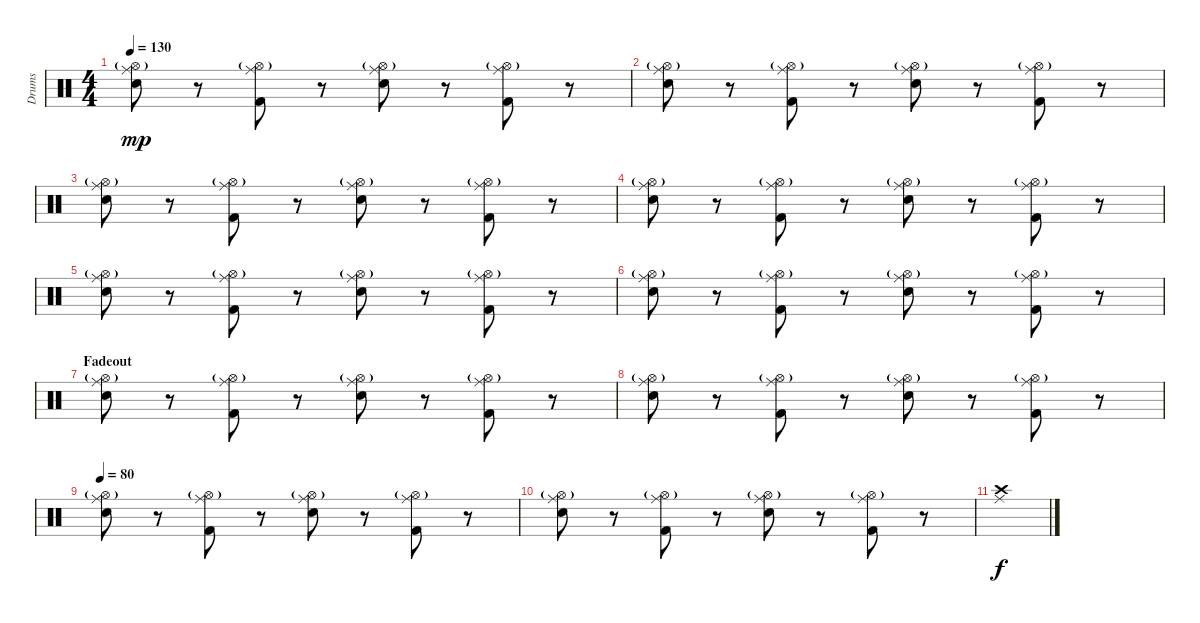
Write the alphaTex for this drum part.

\track ("Drums" "Drums") {instrument percussion}
\staff {score}
\articulation defaults
\ts (4 4)
\tempo 130
\clef neutral
\ks c
("Ride (middle)" "Hi-Hat (open)"{g} "Electric Snare (hit)").8{dy mp} r.8 ("Ride (middle)" "Hi-Hat (open)"{g} "Kick (hit) 2").8 r.8 ("Ride (middle)" "Hi-Hat (open)"{g} "Electric Snare (hit)").8 r.8 ("Ride (middle)" "Hi-Hat (open)"{g} "Kick (hit) 2").8 r.8 |
("Ride (middle)" "Hi-Hat (open)"{g} "Electric Snare (hit)").8 r.8 ("Ride (middle)" "Hi-Hat (open)"{g} "Kick (hit) 2").8 r.8 ("Ride (middle)" "Hi-Hat (open)"{g} "Electric Snare (hit)").8 r.8 ("Ride (middle)" "Hi-Hat (open)"{g} "Kick (hit) 2").8 r.8 |
("Ride (middle)" "Hi-Hat (open)"{g} "Electric Snare (hit)").8 r.8 ("Ride (middle)" "Hi-Hat (open)"{g} "Kick (hit) 2").8 r.8 ("Ride (middle)" "Hi-Hat (open)"{g} "Electric Snare (hit)").8 r.8 ("Ride (middle)" "Hi-Hat (open)"{g} "Kick (hit) 2").8 r.8 |
("Ride (middle)" "Hi-Hat (open)"{g} "Electric Snare (hit)").8 r.8 ("Ride (middle)" "Hi-Hat (open)"{g} "Kick (hit) 2").8 r.8 ("Ride (middle)" "Hi-Hat (open)"{g} "Electric Snare (hit)").8 r.8 ("Ride (middle)" "Hi-Hat (open)"{g} "Kick (hit) 2").8 r.8 |
("Ride (middle)" "Hi-Hat (open)"{g} "Electric Snare (hit)").8 r.8 ("Ride (middle)" "Hi-Hat (open)"{g} "Kick (hit) 2").8 r.8 ("Ride (middle)" "Hi-Hat (open)"{g} "Electric Snare (hit)").8 r.8 ("Ride (middle)" "Hi-Hat (open)"{g} "Kick (hit) 2").8 r.8 |
("Ride (middle)" "Hi-Hat (open)"{g} "Electric Snare (hit)").8 r.8 ("Ride (middle)" "Hi-Hat (open)"{g} "Kick (hit) 2").8 r.8 ("Ride (middle)" "Hi-Hat (open)"{g} "Electric Snare (hit)").8 r.8 ("Ride (middle)" "Hi-Hat (open)"{g} "Kick (hit) 2").8 r.8 |
\section ("" "Fadeout")
("Ride (middle)" "Hi-Hat (open)"{g} "Electric Snare (hit)").8 r.8 ("Ride (middle)" "Hi-Hat (open)"{g} "Kick (hit) 2").8 r.8 ("Ride (middle)" "Hi-Hat (open)"{g} "Electric Snare (hit)").8 r.8 ("Ride (middle)" "Hi-Hat (open)"{g} "Kick (hit) 2").8 r.8 |
("Ride (middle)" "Hi-Hat (open)"{g} "Electric Snare (hit)").8 r.8 ("Ride (middle)" "Hi-Hat (open)"{g} "Kick (hit) 2").8 r.8 ("Ride (middle)" "Hi-Hat (open)"{g} "Electric Snare (hit)").8 r.8 ("Ride (middle)" "Hi-Hat (open)"{g} "Kick (hit) 2").8 r.8 |
\tempo 80
("Ride (middle)" "Hi-Hat (open)"{g} "Electric Snare (hit)").8 r.8 ("Ride (middle)" "Hi-Hat (open)"{g} "Kick (hit) 2").8 r.8 ("Ride (middle)" "Hi-Hat (open)"{g} "Electric Snare (hit)").8 r.8 ("Ride (middle)" "Hi-Hat (open)"{g} "Kick (hit) 2").8 r.8 |
("Ride (middle)" "Hi-Hat (open)"{g} "Electric Snare (hit)").8 r.8 ("Ride (middle)" "Hi-Hat (open)"{g} "Kick (hit) 2").8 r.8 ("Ride (middle)" "Hi-Hat (open)"{g} "Electric Snare (hit)").8 r.8 ("Ride (middle)" "Hi-Hat (open)"{g} "Kick (hit) 2").8 r.8 |
("Crash high (hit)" "Ride (middle)").1{dy f}
